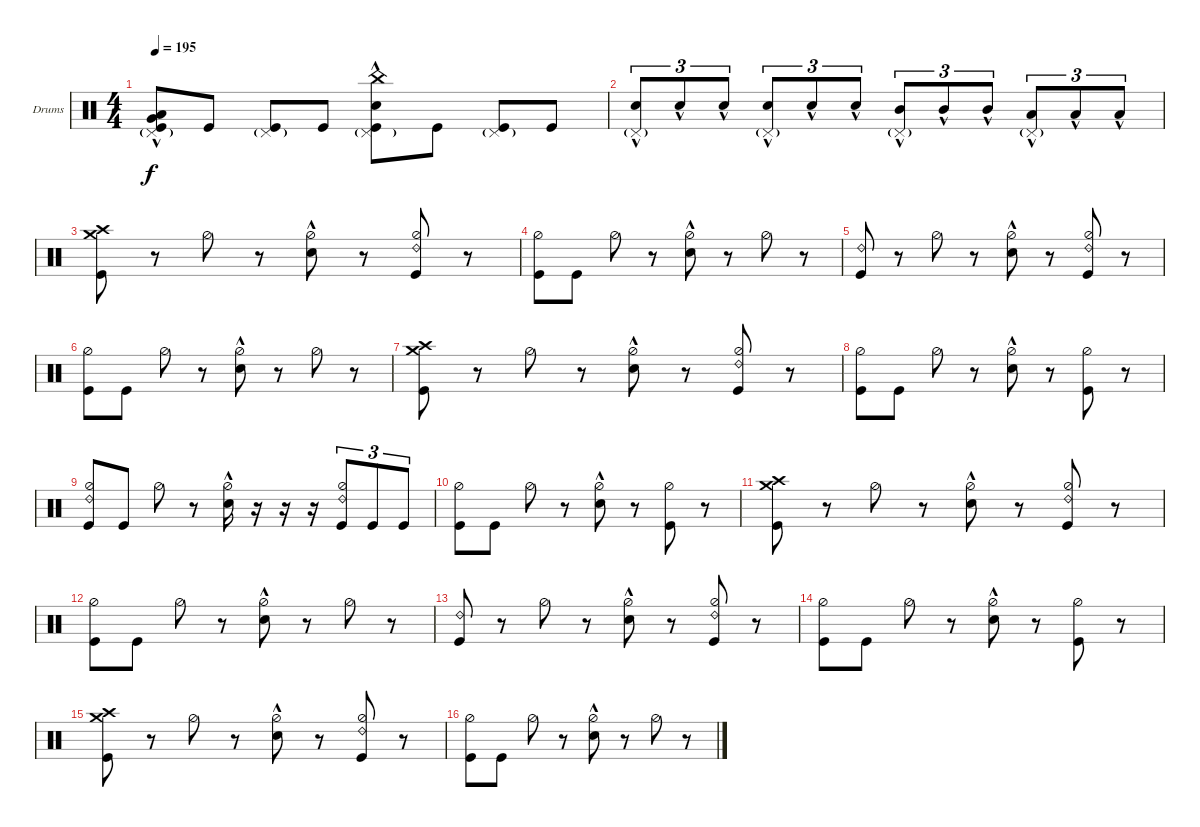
\defaultSystemsLayout 4
\bracketExtendMode groupsimilarinstruments
\firstSystemTrackNameOrientation horizontal
\otherSystemsTrackNameOrientation horizontal
\track ("Drumkit" "Drums") {instrument percussion}
\staff {score}
\articulation defaults
\ts (4 4)
\tempo 195
\clef neutral
\ks c
("Kick (hit)" "Very Low Tom (hit)"{hac} "Low Tom (hit)"{hac} "Pedal Hi-Hat (hit)"{g}).8{dy f} "Kick (hit)".8 ("Kick (hit)" "Pedal Hi-Hat (hit)"{g}).8 "Kick (hit)".8 ("Kick (hit)" "Snare (hit) 2"{hac} "China (hit)"{hac} "Pedal Hi-Hat (hit)"{g}).8 "Kick (hit)".8 ("Kick (hit)" "Pedal Hi-Hat (hit)"{g}).8 "Kick (hit)".8 |
("Pedal Hi-Hat (hit)"{g} "Snare (hit) 2"{hac}).8{tu (3 2)} "Snare (hit) 2"{hac}.8{tu (3 2)} "Snare (hit) 2"{hac}.8{tu (3 2)} ("Snare (hit) 2"{hac} "Pedal Hi-Hat (hit)"{g}).8{tu (3 2)} "Snare (hit) 2"{hac}.8{tu (3 2)} "Snare (hit) 2"{hac}.8{tu (3 2)} ("Mid Tom (hit)"{hac} "Pedal Hi-Hat (hit)"{g}).8{tu (3 2)} "Mid Tom (hit)"{hac}.8{tu (3 2)} "Mid Tom (hit)"{hac}.8{tu (3 2)} ("Low Tom (hit)"{hac} "Pedal Hi-Hat (hit)"{g}).8{tu (3 2)} "Low Tom (hit)"{hac}.8{tu (3 2)} "Low Tom (hit)"{hac}.8{tu (3 2)} |
("Kick (hit)" "Crash medium (hit)" "Crash high (hit)").8 r.8 "Hi-Hat (half)".8 r.8 ("Hi-Hat (half)" "Snare (hit) 2"{hac}).8 r.8 ("Hi-Hat (half)" "Kick (hit)" "Ride (bell) 2").8 r.8 |
("Kick (hit)" "Hi-Hat (half)").8 "Kick (hit)".8 "Hi-Hat (half)".8 r.8 ("Hi-Hat (half)" "Snare (hit) 2"{hac}).8 r.8 "Hi-Hat (half)".8 r.8 |
("Kick (hit)" "Ride (bell) 2").8 r.8 "Hi-Hat (half)".8 r.8 ("Hi-Hat (half)" "Snare (hit) 2"{hac}).8 r.8 ("Hi-Hat (half)" "Kick (hit)" "Ride (bell) 2").8 r.8 |
("Kick (hit)" "Hi-Hat (half)").8 "Kick (hit)".8 "Hi-Hat (half)".8 r.8 ("Hi-Hat (half)" "Snare (hit) 2"{hac}).8 r.8 "Hi-Hat (half)".8 r.8 |
("Kick (hit)" "Crash medium (hit)" "Crash high (hit)").8 r.8 "Hi-Hat (half)".8 r.8 ("Hi-Hat (half)" "Snare (hit) 2"{hac}).8 r.8 ("Hi-Hat (half)" "Ride (bell) 2" "Kick (hit)").8 r.8 |
("Kick (hit)" "Hi-Hat (half)").8 "Kick (hit)".8 "Hi-Hat (half)".8 r.8 ("Hi-Hat (half)" "Snare (hit) 2"{hac}).8 r.8 ("Hi-Hat (half)" "Kick (hit)").8 r.8 |
("Kick (hit)" "Hi-Hat (half)" "Ride (bell) 2").8 "Kick (hit)".8 "Hi-Hat (half)".8 r.8 ("Hi-Hat (half)" "Snare (hit) 2"{hac}).16 r.16 r.16 r.16 ("Hi-Hat (half)" "Kick (hit)" "Ride (bell) 2").8{tu (3 2)} "Kick (hit)".8{tu (3 2)} "Kick (hit)".8{tu (3 2)} |
("Hi-Hat (half)" "Kick (hit)").8 "Kick (hit)".8 "Hi-Hat (half)".8 r.8 ("Hi-Hat (half)" "Snare (hit) 2"{hac}).8 r.8 ("Hi-Hat (half)" "Kick (hit)").8 r.8 |
("Kick (hit)" "Crash medium (hit)" "Crash high (hit)").8 r.8 "Hi-Hat (half)".8 r.8 ("Hi-Hat (half)" "Snare (hit) 2"{hac}).8 r.8 ("Hi-Hat (half)" "Kick (hit)" "Ride (bell) 2").8 r.8 |
("Kick (hit)" "Hi-Hat (half)").8 "Kick (hit)".8 "Hi-Hat (half)".8 r.8 ("Hi-Hat (half)" "Snare (hit) 2"{hac}).8 r.8 "Hi-Hat (half)".8 r.8 |
("Kick (hit)" "Ride (bell) 2").8 r.8 "Hi-Hat (half)".8 r.8 ("Hi-Hat (half)" "Snare (hit) 2"{hac}).8 r.8 ("Hi-Hat (half)" "Kick (hit)" "Ride (bell) 2").8 r.8 |
("Kick (hit)" "Hi-Hat (half)").8 "Kick (hit)".8 "Hi-Hat (half)".8 r.8 ("Hi-Hat (half)" "Snare (hit) 2"{hac}).8 r.8 ("Hi-Hat (half)" "Kick (hit)").8 r.8 |
("Kick (hit)" "Crash medium (hit)" "Crash high (hit)").8 r.8 "Hi-Hat (half)".8 r.8 ("Hi-Hat (half)" "Snare (hit) 2"{hac}).8 r.8 ("Hi-Hat (half)" "Kick (hit)" "Ride (bell) 2").8 r.8 |
("Kick (hit)" "Hi-Hat (half)").8 "Kick (hit)".8 "Hi-Hat (half)".8 r.8 ("Hi-Hat (half)" "Snare (hit) 2"{hac}).8 r.8 "Hi-Hat (half)".8 r.8
